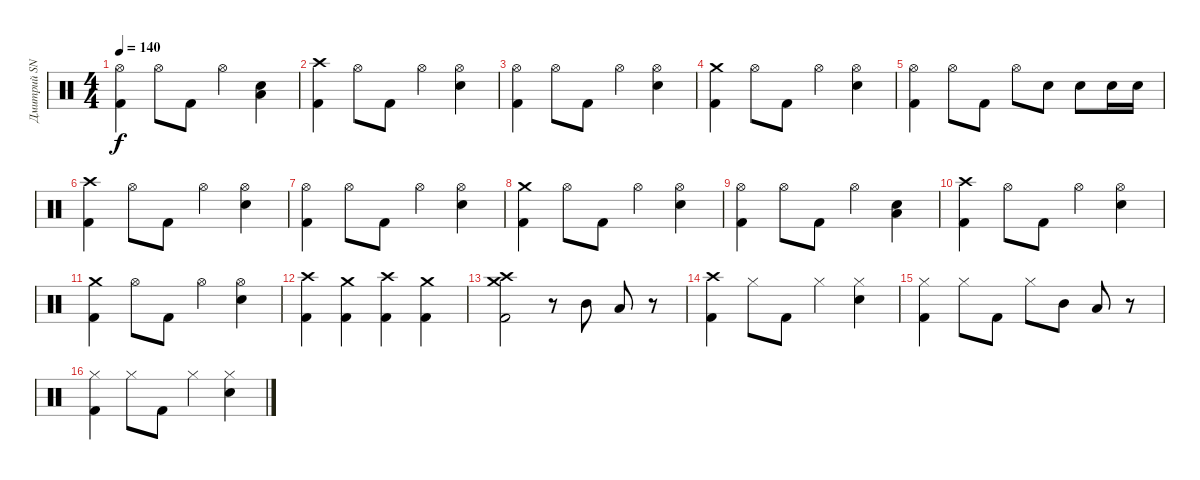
\track ("Дмитрий SNAKE Хакимов" "Дмитрий SN") {instrument percussion}
\staff {score}
\articulation defaults
\ts (4 4)
\tempo 140
\clef neutral
\ks c
("Hi-Hat (open)" "Kick (hit) 2").4{dy f} "Hi-Hat (open)".8 "Kick (hit) 2".8 "Hi-Hat (open)".4 ("Snare (hit) 2" "Low Tom (hit)").4 |
("Crash high (hit)" "Kick (hit) 2").4 "Hi-Hat (open)".8 "Kick (hit) 2".8 "Hi-Hat (open)".4 ("Hi-Hat (open)" "Snare (hit) 2").4 |
("Hi-Hat (open)" "Kick (hit) 2").4 "Hi-Hat (open)".8 "Kick (hit) 2".8 "Hi-Hat (open)".4 ("Hi-Hat (open)" "Snare (hit) 2").4 |
("Crash medium (hit)" "Kick (hit) 2").4 "Hi-Hat (open)".8 "Kick (hit) 2".8 "Hi-Hat (open)".4 ("Hi-Hat (open)" "Snare (hit) 2").4 |
("Hi-Hat (open)" "Kick (hit) 2").4 "Hi-Hat (open)".8 "Kick (hit) 2".8 "Hi-Hat (open)".8 "Snare (hit) 2".8 "Snare (hit) 2".8 "Snare (hit) 2".16 "Snare (hit) 2".16 |
("Crash high (hit)" "Kick (hit) 2").4 "Hi-Hat (open)".8 "Kick (hit) 2".8 "Hi-Hat (open)".4 ("Hi-Hat (open)" "Snare (hit) 2").4 |
("Hi-Hat (open)" "Kick (hit) 2").4 "Hi-Hat (open)".8 "Kick (hit) 2".8 "Hi-Hat (open)".4 ("Hi-Hat (open)" "Snare (hit) 2").4 |
("Crash medium (hit)" "Kick (hit) 2").4 "Hi-Hat (open)".8 "Kick (hit) 2".8 "Hi-Hat (open)".4 ("Hi-Hat (open)" "Snare (hit) 2").4 |
("Hi-Hat (open)" "Kick (hit) 2").4 "Hi-Hat (open)".8 "Kick (hit) 2".8 "Hi-Hat (open)".4 ("Snare (hit) 2" "Low Tom (hit)").4 |
("Crash high (hit)" "Kick (hit) 2").4 "Hi-Hat (open)".8 "Kick (hit) 2".8 "Hi-Hat (open)".4 ("Hi-Hat (open)" "Snare (hit) 2").4 |
("Crash medium (hit)" "Kick (hit) 2").4 "Hi-Hat (open)".8 "Kick (hit) 2".8 "Hi-Hat (open)".4 ("Hi-Hat (open)" "Snare (hit) 2").4 |
("Crash high (hit)" "Kick (hit) 2").4 ("Crash medium (hit)" "Kick (hit) 2").4 ("Crash high (hit)" "Kick (hit) 2").4 ("Crash medium (hit)" "Kick (hit) 2").4 |
("Crash high (hit)" "Crash medium (hit)" "Kick (hit) 2").2 r.8 "Mid Tom (hit)".8 "Low Tom (hit)".8 r.8 |
("Crash high (hit)" "Kick (hit) 2").4 "Hi-Hat (closed)".8 "Kick (hit) 2".8 "Hi-Hat (closed)".4 ("Hi-Hat (closed)" "Snare (hit) 2").4 |
("Hi-Hat (closed)" "Kick (hit) 2").4 "Hi-Hat (closed)".8 "Kick (hit) 2".8 "Hi-Hat (closed)".8 "Mid Tom (hit)".8 "Low Tom (hit)".8 r.8 |
("Hi-Hat (closed)" "Kick (hit) 2").4 "Hi-Hat (closed)".8 "Kick (hit) 2".8 "Hi-Hat (closed)".4 ("Hi-Hat (closed)" "Snare (hit) 2").4
